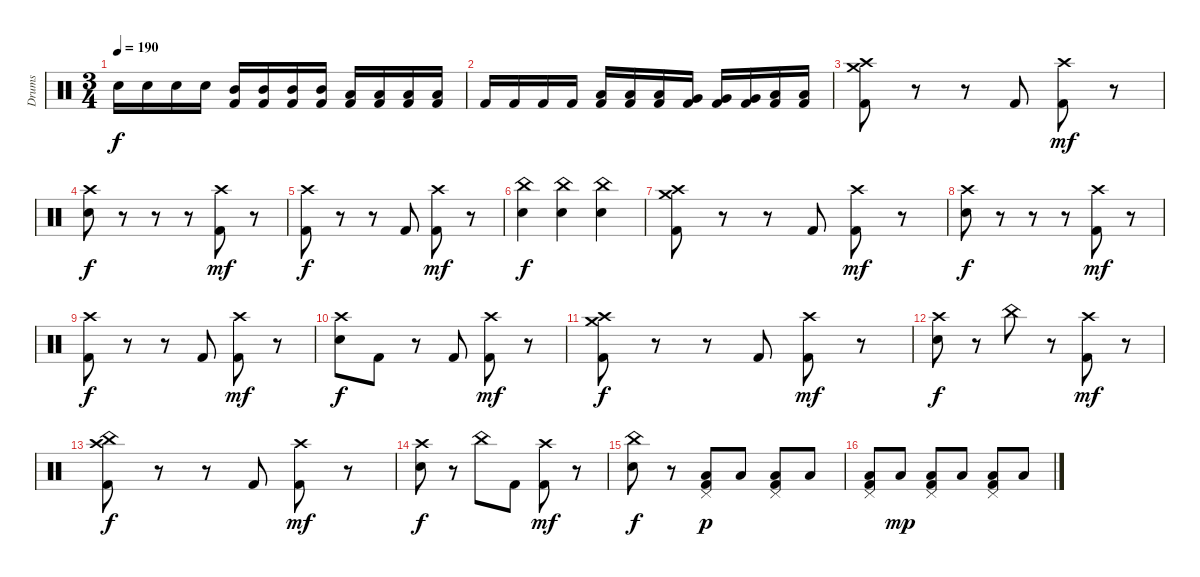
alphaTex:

\track ("Drums" "Drums") {instrument percussion}
\staff {score}
\articulation defaults
\ts (3 4)
\tempo 190
\clef neutral
\ks c "Electric Snare (hit)".16{dy f} "Electric Snare (hit)".16 "Electric Snare (hit)".16 "Electric Snare (hit)".16
("Mid Tom (hit)" "Kick (hit) 2").16 ("Mid Tom (hit)" "Kick (hit) 2").16 ("Mid Tom (hit)" "Kick (hit) 2").16 ("Mid Tom (hit)" "Kick (hit) 2").16 ("Low Tom (hit)" "Kick (hit) 2").16 ("Low Tom (hit)" "Kick (hit) 2").16 ("Low Tom (hit)" "Kick (hit) 2").16 ("Low Tom (hit)" "Kick (hit) 2").16 |
"Kick (hit) 2".16 "Kick (hit) 2".16 "Kick (hit) 2".16 "Kick (hit) 2".16 ("Low Tom (hit)" "Kick (hit) 2").16 ("Low Tom (hit)" "Kick (hit) 2").16 ("Low Tom (hit)" "Kick (hit) 2").16 ("Very Low Tom (hit)" "Kick (hit) 2").16 ("Very Low Tom (hit)" "Kick (hit) 2").16 ("Very Low Tom (hit)" "Kick (hit) 2").16 ("Low Floor Tom (hit)" "Kick (hit) 2").16 ("Low Floor Tom (hit)" "Kick (hit) 2").16 |
("Crash medium (hit)" "Crash high (hit)" "Kick (hit) 2").8 r.8 r.8 "Kick (hit) 2".8 ("Crash high (hit)" "Kick (hit) 2").8{dy mf} r.8 |
("Crash high (hit)" "Electric Snare (hit)").8{dy f} r.8 r.8 r.8 ("Crash high (hit)" "Kick (hit) 2").8{dy mf} r.8 |
("Crash high (hit)" "Kick (hit) 2").8{dy f} r.8 r.8 "Kick (hit) 2".8 ("Crash high (hit)" "Kick (hit) 2").8{dy mf} r.8 |
("China (hit)" "Electric Snare (hit)").4{dy f} ("China (hit)" "Electric Snare (hit)").4 ("China (hit)" "Electric Snare (hit)").4 |
("Crash medium (hit)" "Crash high (hit)" "Kick (hit) 2").8 r.8 r.8 "Kick (hit) 2".8 ("Crash high (hit)" "Kick (hit) 2").8{dy mf} r.8 |
("Crash high (hit)" "Electric Snare (hit)").8{dy f} r.8 r.8 r.8 ("Crash high (hit)" "Kick (hit) 2").8{dy mf} r.8 |
("Crash high (hit)" "Kick (hit) 2").8{dy f} r.8 r.8 "Kick (hit) 2".8 ("Crash high (hit)" "Kick (hit) 2").8{dy mf} r.8 |
("Crash high (hit)" "Electric Snare (hit)").8{dy f} "Kick (hit) 2".8 r.8 "Kick (hit) 2".8 ("Crash high (hit)" "Kick (hit) 2").8{dy mf} r.8 |
("Crash medium (hit)" "Crash high (hit)" "Kick (hit) 2").8{dy f} r.8 r.8 "Kick (hit) 2".8 ("Crash high (hit)" "Kick (hit) 2").8{dy mf} r.8 |
("Crash high (hit)" "Electric Snare (hit)").8{dy f} r.8 "China (hit)".8 r.8 ("Crash high (hit)" "Kick (hit) 2").8{dy mf} r.8 |
("China (hit)" "Crash high (hit)" "Kick (hit) 2").8{dy f} r.8 r.8 "Kick (hit) 2".8 ("Crash high (hit)" "Kick (hit) 2").8{dy mf} r.8 |
("Crash high (hit)" "Electric Snare (hit)").8{dy f} r.8 "China (hit)".8 "Kick (hit) 2".8 ("Crash high (hit)" "Kick (hit) 2").8{dy mf} r.8 |
("China (hit)" "Electric Snare (hit)").8{dy f} r.8 ("Pedal Hi-Hat (hit)" "Low Floor Tom (hit)" "Kick (hit) 2").8{dy p} "Low Floor Tom (hit)".8 ("Pedal Hi-Hat (hit)" "Low Floor Tom (hit)" "Kick (hit) 2").8 "Low Floor Tom (hit)".8 |
("Pedal Hi-Hat (hit)" "Low Floor Tom (hit)" "Kick (hit) 2").8 "Low Floor Tom (hit)".8{dy mp} ("Pedal Hi-Hat (hit)" "Low Floor Tom (hit)" "Kick (hit) 2").8 "Low Floor Tom (hit)".8 ("Pedal Hi-Hat (hit)" "Low Floor Tom (hit)" "Kick (hit) 2").8 "Low Floor Tom (hit)".8
